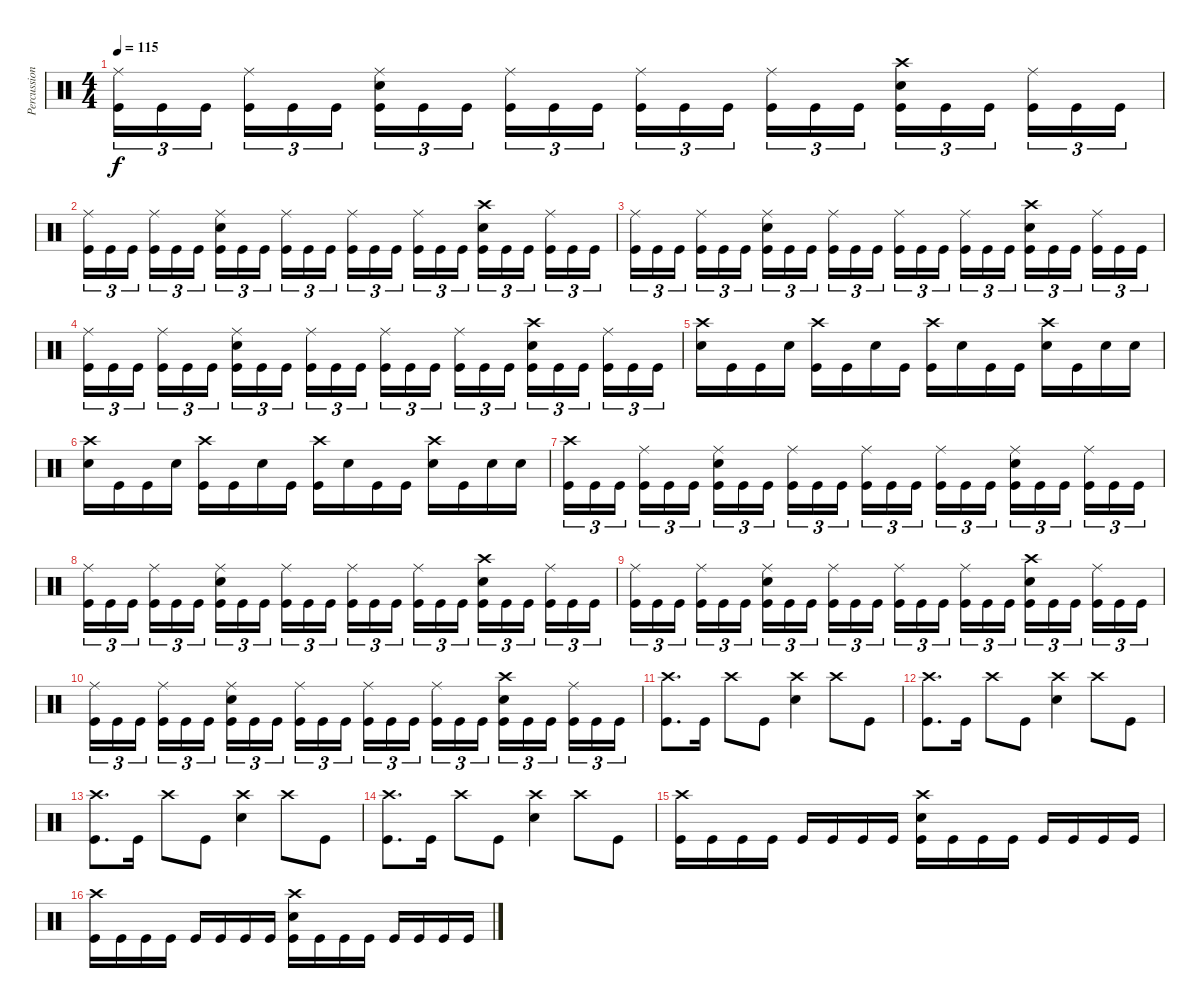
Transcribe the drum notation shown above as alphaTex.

\track ("Percussion" "Percussion") {instrument percussion}
\staff {score}
\articulation defaults
\ts (4 4)
\tempo 115
\clef neutral
\ks c
("Ride (middle)" "Kick (hit)").16{tu (3 2) dy f} "Kick (hit)".16{tu (3 2)} "Kick (hit)".16{tu (3 2)} ("Ride (middle)" "Kick (hit)").16{tu (3 2)} "Kick (hit)".16{tu (3 2)} "Kick (hit)".16{tu (3 2)} ("Ride (middle)" "Snare (hit) 2" "Kick (hit)").16{tu (3 2)} "Kick (hit)".16{tu (3 2)} "Kick (hit)".16{tu (3 2)} ("Ride (middle)" "Kick (hit)").16{tu (3 2)} "Kick (hit)".16{tu (3 2)} "Kick (hit)".16{tu (3 2)} ("Ride (middle)" "Kick (hit)").16{tu (3 2)} "Kick (hit)".16{tu (3 2)} "Kick (hit)".16{tu (3 2)} ("Ride (middle)" "Kick (hit)").16{tu (3 2)} "Kick (hit)".16{tu (3 2)} "Kick (hit)".16{tu (3 2)} ("Crash high (hit)" "Snare (hit) 2" "Kick (hit)").16{tu (3 2)} "Kick (hit)".16{tu (3 2)} "Kick (hit)".16{tu (3 2)} ("Ride (middle)" "Kick (hit)").16{tu (3 2)} "Kick (hit)".16{tu (3 2)} "Kick (hit)".16{tu (3 2)} |
("Ride (middle)" "Kick (hit)").16{tu (3 2)} "Kick (hit)".16{tu (3 2)} "Kick (hit)".16{tu (3 2)} ("Ride (middle)" "Kick (hit)").16{tu (3 2)} "Kick (hit)".16{tu (3 2)} "Kick (hit)".16{tu (3 2)} ("Ride (middle)" "Snare (hit) 2" "Kick (hit)").16{tu (3 2)} "Kick (hit)".16{tu (3 2)} "Kick (hit)".16{tu (3 2)} ("Ride (middle)" "Kick (hit)").16{tu (3 2)} "Kick (hit)".16{tu (3 2)} "Kick (hit)".16{tu (3 2)} ("Ride (middle)" "Kick (hit)").16{tu (3 2)} "Kick (hit)".16{tu (3 2)} "Kick (hit)".16{tu (3 2)} ("Ride (middle)" "Kick (hit)").16{tu (3 2)} "Kick (hit)".16{tu (3 2)} "Kick (hit)".16{tu (3 2)} ("Crash high (hit)" "Snare (hit) 2" "Kick (hit)").16{tu (3 2)} "Kick (hit)".16{tu (3 2)} "Kick (hit)".16{tu (3 2)} ("Ride (middle)" "Kick (hit)").16{tu (3 2)} "Kick (hit)".16{tu (3 2)} "Kick (hit)".16{tu (3 2)} |
("Ride (middle)" "Kick (hit)").16{tu (3 2)} "Kick (hit)".16{tu (3 2)} "Kick (hit)".16{tu (3 2)} ("Ride (middle)" "Kick (hit)").16{tu (3 2)} "Kick (hit)".16{tu (3 2)} "Kick (hit)".16{tu (3 2)} ("Ride (middle)" "Snare (hit) 2" "Kick (hit)").16{tu (3 2)} "Kick (hit)".16{tu (3 2)} "Kick (hit)".16{tu (3 2)} ("Ride (middle)" "Kick (hit)").16{tu (3 2)} "Kick (hit)".16{tu (3 2)} "Kick (hit)".16{tu (3 2)} ("Ride (middle)" "Kick (hit)").16{tu (3 2)} "Kick (hit)".16{tu (3 2)} "Kick (hit)".16{tu (3 2)} ("Ride (middle)" "Kick (hit)").16{tu (3 2)} "Kick (hit)".16{tu (3 2)} "Kick (hit)".16{tu (3 2)} ("Crash high (hit)" "Snare (hit) 2" "Kick (hit)").16{tu (3 2)} "Kick (hit)".16{tu (3 2)} "Kick (hit)".16{tu (3 2)} ("Ride (middle)" "Kick (hit)").16{tu (3 2)} "Kick (hit)".16{tu (3 2)} "Kick (hit)".16{tu (3 2)} |
("Ride (middle)" "Kick (hit)").16{tu (3 2)} "Kick (hit)".16{tu (3 2)} "Kick (hit)".16{tu (3 2)} ("Ride (middle)" "Kick (hit)").16{tu (3 2)} "Kick (hit)".16{tu (3 2)} "Kick (hit)".16{tu (3 2)} ("Ride (middle)" "Snare (hit) 2" "Kick (hit)").16{tu (3 2)} "Kick (hit)".16{tu (3 2)} "Kick (hit)".16{tu (3 2)} ("Ride (middle)" "Kick (hit)").16{tu (3 2)} "Kick (hit)".16{tu (3 2)} "Kick (hit)".16{tu (3 2)} ("Ride (middle)" "Kick (hit)").16{tu (3 2)} "Kick (hit)".16{tu (3 2)} "Kick (hit)".16{tu (3 2)} ("Ride (middle)" "Kick (hit)").16{tu (3 2)} "Kick (hit)".16{tu (3 2)} "Kick (hit)".16{tu (3 2)} ("Crash high (hit)" "Snare (hit) 2" "Kick (hit)").16{tu (3 2)} "Kick (hit)".16{tu (3 2)} "Kick (hit)".16{tu (3 2)} ("Ride (middle)" "Kick (hit)").16{tu (3 2)} "Kick (hit)".16{tu (3 2)} "Kick (hit)".16{tu (3 2)} |
("Snare (hit) 2" "Crash high (hit)").16 "Kick (hit)".16 "Kick (hit)".16 "Snare (hit) 2".16 ("Crash high (hit)" "Kick (hit)").16 "Kick (hit)".16 "Snare (hit) 2".16 "Kick (hit)".16 ("Crash high (hit)" "Kick (hit)").16 "Snare (hit) 2".16 "Kick (hit)".16 "Kick (hit)".16 ("Crash high (hit)" "Snare (hit) 2").16 "Kick (hit)".16 "Snare (hit) 2".16 "Snare (hit) 2".16 |
("Snare (hit) 2" "Crash high (hit)").16 "Kick (hit)".16 "Kick (hit)".16 "Snare (hit) 2".16 ("Crash high (hit)" "Kick (hit)").16 "Kick (hit)".16 "Snare (hit) 2".16 "Kick (hit)".16 ("Crash high (hit)" "Kick (hit)").16 "Snare (hit) 2".16 "Kick (hit)".16 "Kick (hit)".16 ("Crash high (hit)" "Snare (hit) 2").16 "Kick (hit)".16 "Snare (hit) 2".16 "Snare (hit) 2".16 |
("Crash high (hit)" "Kick (hit)").16{tu (3 2)} "Kick (hit)".16{tu (3 2)} "Kick (hit)".16{tu (3 2)} ("Ride (middle)" "Kick (hit)").16{tu (3 2)} "Kick (hit)".16{tu (3 2)} "Kick (hit)".16{tu (3 2)} ("Ride (middle)" "Snare (hit) 2" "Kick (hit)").16{tu (3 2)} "Kick (hit)".16{tu (3 2)} "Kick (hit)".16{tu (3 2)} ("Ride (middle)" "Kick (hit)").16{tu (3 2)} "Kick (hit)".16{tu (3 2)} "Kick (hit)".16{tu (3 2)} ("Ride (middle)" "Kick (hit)").16{tu (3 2)} "Kick (hit)".16{tu (3 2)} "Kick (hit)".16{tu (3 2)} ("Ride (middle)" "Kick (hit)").16{tu (3 2)} "Kick (hit)".16{tu (3 2)} "Kick (hit)".16{tu (3 2)} ("Ride (middle)" "Snare (hit) 2" "Kick (hit)").16{tu (3 2)} "Kick (hit)".16{tu (3 2)} "Kick (hit)".16{tu (3 2)} ("Ride (middle)" "Kick (hit)").16{tu (3 2)} "Kick (hit)".16{tu (3 2)} "Kick (hit)".16{tu (3 2)} |
("Ride (middle)" "Kick (hit)").16{tu (3 2)} "Kick (hit)".16{tu (3 2)} "Kick (hit)".16{tu (3 2)} ("Ride (middle)" "Kick (hit)").16{tu (3 2)} "Kick (hit)".16{tu (3 2)} "Kick (hit)".16{tu (3 2)} ("Ride (middle)" "Snare (hit) 2" "Kick (hit)").16{tu (3 2)} "Kick (hit)".16{tu (3 2)} "Kick (hit)".16{tu (3 2)} ("Ride (middle)" "Kick (hit)").16{tu (3 2)} "Kick (hit)".16{tu (3 2)} "Kick (hit)".16{tu (3 2)} ("Ride (middle)" "Kick (hit)").16{tu (3 2)} "Kick (hit)".16{tu (3 2)} "Kick (hit)".16{tu (3 2)} ("Ride (middle)" "Kick (hit)").16{tu (3 2)} "Kick (hit)".16{tu (3 2)} "Kick (hit)".16{tu (3 2)} ("Crash high (hit)" "Snare (hit) 2" "Kick (hit)").16{tu (3 2)} "Kick (hit)".16{tu (3 2)} "Kick (hit)".16{tu (3 2)} ("Ride (middle)" "Kick (hit)").16{tu (3 2)} "Kick (hit)".16{tu (3 2)} "Kick (hit)".16{tu (3 2)} |
("Ride (middle)" "Kick (hit)").16{tu (3 2)} "Kick (hit)".16{tu (3 2)} "Kick (hit)".16{tu (3 2)} ("Ride (middle)" "Kick (hit)").16{tu (3 2)} "Kick (hit)".16{tu (3 2)} "Kick (hit)".16{tu (3 2)} ("Ride (middle)" "Snare (hit) 2" "Kick (hit)").16{tu (3 2)} "Kick (hit)".16{tu (3 2)} "Kick (hit)".16{tu (3 2)} ("Ride (middle)" "Kick (hit)").16{tu (3 2)} "Kick (hit)".16{tu (3 2)} "Kick (hit)".16{tu (3 2)} ("Ride (middle)" "Kick (hit)").16{tu (3 2)} "Kick (hit)".16{tu (3 2)} "Kick (hit)".16{tu (3 2)} ("Ride (middle)" "Kick (hit)").16{tu (3 2)} "Kick (hit)".16{tu (3 2)} "Kick (hit)".16{tu (3 2)} ("Crash high (hit)" "Snare (hit) 2" "Kick (hit)").16{tu (3 2)} "Kick (hit)".16{tu (3 2)} "Kick (hit)".16{tu (3 2)} ("Ride (middle)" "Kick (hit)").16{tu (3 2)} "Kick (hit)".16{tu (3 2)} "Kick (hit)".16{tu (3 2)} |
("Ride (middle)" "Kick (hit)").16{tu (3 2)} "Kick (hit)".16{tu (3 2)} "Kick (hit)".16{tu (3 2)} ("Ride (middle)" "Kick (hit)").16{tu (3 2)} "Kick (hit)".16{tu (3 2)} "Kick (hit)".16{tu (3 2)} ("Ride (middle)" "Snare (hit) 2" "Kick (hit)").16{tu (3 2)} "Kick (hit)".16{tu (3 2)} "Kick (hit)".16{tu (3 2)} ("Ride (middle)" "Kick (hit)").16{tu (3 2)} "Kick (hit)".16{tu (3 2)} "Kick (hit)".16{tu (3 2)} ("Ride (middle)" "Kick (hit)").16{tu (3 2)} "Kick (hit)".16{tu (3 2)} "Kick (hit)".16{tu (3 2)} ("Ride (middle)" "Kick (hit)").16{tu (3 2)} "Kick (hit)".16{tu (3 2)} "Kick (hit)".16{tu (3 2)} ("Crash high (hit)" "Snare (hit) 2" "Kick (hit)").16{tu (3 2)} "Kick (hit)".16{tu (3 2)} "Kick (hit)".16{tu (3 2)} ("Ride (middle)" "Kick (hit)").16{tu (3 2)} "Kick (hit)".16{tu (3 2)} "Kick (hit)".16{tu (3 2)} |
("Crash high (hit)" "Kick (hit)").8{d} "Kick (hit)".16 "Crash high (hit)".8 "Kick (hit)".8 ("Snare (hit) 2" "Crash high (hit)").4 "Crash high (hit)".8 "Kick (hit)".8 |
("Crash high (hit)" "Kick (hit)").8{d} "Kick (hit)".16 "Crash high (hit)".8 "Kick (hit)".8 ("Snare (hit) 2" "Crash high (hit)").4 "Crash high (hit)".8 "Kick (hit)".8 |
("Crash high (hit)" "Kick (hit)").8{d} "Kick (hit)".16 "Crash high (hit)".8 "Kick (hit)".8 ("Snare (hit) 2" "Crash high (hit)").4 "Crash high (hit)".8 "Kick (hit)".8 |
("Crash high (hit)" "Kick (hit)").8{d} "Kick (hit)".16 "Crash high (hit)".8 "Kick (hit)".8 ("Snare (hit) 2" "Crash high (hit)").4 "Crash high (hit)".8 "Kick (hit)".8 |
("Crash high (hit)" "Kick (hit)").16 "Kick (hit)".16 "Kick (hit)".16 "Kick (hit)".16 "Kick (hit)".16 "Kick (hit)".16 "Kick (hit)".16 "Kick (hit)".16 ("Crash high (hit)" "Snare (hit) 2" "Kick (hit)").16 "Kick (hit)".16 "Kick (hit)".16 "Kick (hit)".16 "Kick (hit)".16 "Kick (hit)".16 "Kick (hit)".16 "Kick (hit)".16 |
("Crash high (hit)" "Kick (hit)").16 "Kick (hit)".16 "Kick (hit)".16 "Kick (hit)".16 "Kick (hit)".16 "Kick (hit)".16 "Kick (hit)".16 "Kick (hit)".16 ("Crash high (hit)" "Snare (hit) 2" "Kick (hit)").16 "Kick (hit)".16 "Kick (hit)".16 "Kick (hit)".16 "Kick (hit)".16 "Kick (hit)".16 "Kick (hit)".16 "Kick (hit)".16
